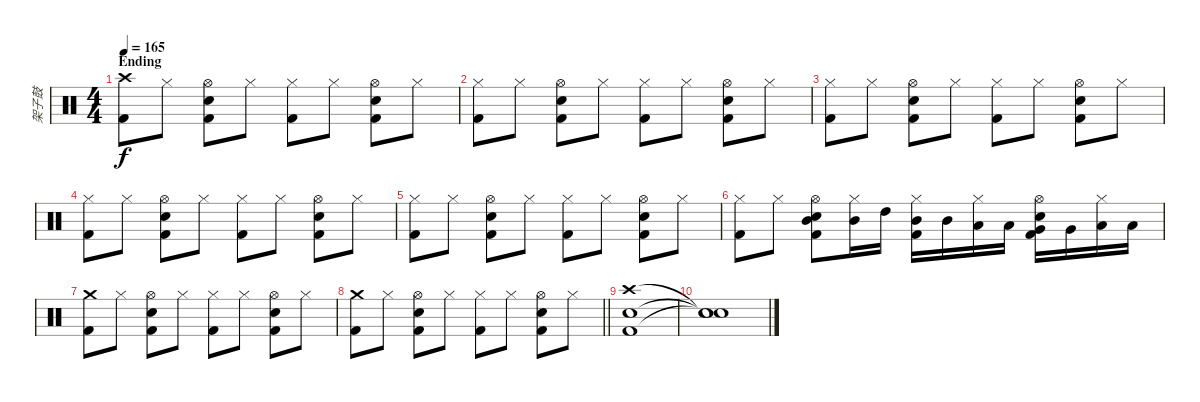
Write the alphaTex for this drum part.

\track ("架子鼓" "架子鼓") {instrument percussion}
\staff {score}
\articulation defaults
\ts (4 4)
\section ("" "Ending")
\tempo 165
\clef neutral
\ks c
("Crash high (hit)" "Kick (hit) 2").8{dy f} "Hi-Hat (closed)".8 ("Hi-Hat (open)" "Electric Snare (hit)" "Kick (hit) 2").8 "Hi-Hat (closed)".8 ("Hi-Hat (closed)" "Kick (hit) 2").8 "Hi-Hat (closed)".8 ("Hi-Hat (open)" "Electric Snare (hit)" "Kick (hit) 2").8 "Hi-Hat (closed)".8 |
("Hi-Hat (closed)" "Kick (hit) 2").8 "Hi-Hat (closed)".8 ("Hi-Hat (open)" "Electric Snare (hit)" "Kick (hit) 2").8 "Hi-Hat (closed)".8 ("Hi-Hat (closed)" "Kick (hit) 2").8 "Hi-Hat (closed)".8 ("Hi-Hat (open)" "Electric Snare (hit)" "Kick (hit) 2").8 "Hi-Hat (closed)".8 |
("Hi-Hat (closed)" "Kick (hit) 2").8 "Hi-Hat (closed)".8 ("Hi-Hat (open)" "Electric Snare (hit)" "Kick (hit) 2").8 "Hi-Hat (closed)".8 ("Hi-Hat (closed)" "Kick (hit) 2").8 "Hi-Hat (closed)".8 ("Hi-Hat (open)" "Electric Snare (hit)" "Kick (hit) 2").8 "Hi-Hat (closed)".8 |
("Hi-Hat (closed)" "Kick (hit) 2").8 "Hi-Hat (closed)".8 ("Hi-Hat (open)" "Electric Snare (hit)" "Kick (hit) 2").8 "Hi-Hat (closed)".8 ("Hi-Hat (closed)" "Kick (hit) 2").8 "Hi-Hat (closed)".8 ("Hi-Hat (open)" "Electric Snare (hit)" "Kick (hit) 2").8 "Hi-Hat (closed)".8 |
("Hi-Hat (closed)" "Kick (hit) 2").8 "Hi-Hat (closed)".8 ("Hi-Hat (open)" "Electric Snare (hit)" "Kick (hit) 2").8 "Hi-Hat (closed)".8 ("Hi-Hat (closed)" "Kick (hit) 2").8 "Hi-Hat (closed)".8 ("Hi-Hat (open)" "Electric Snare (hit)" "Kick (hit) 2").8 "Hi-Hat (closed)".8 |
("Hi-Hat (closed)" "Kick (hit) 2").8 "Hi-Hat (closed)".8 ("Hi-Hat (open)" "Electric Snare (hit)" "Mid Tom (hit)" "Kick (hit) 2").8 ("Hi-Hat (closed)" "Mid Tom (hit)").16 "High Tom (hit)".16 ("Hi-Hat (closed)" "Mid Tom (hit)" "Kick (hit) 2").16 "Mid Tom (hit)".16 ("Hi-Hat (closed)" "Low Tom (hit)").16 "Low Tom (hit)".16 ("Hi-Hat (open)" "Electric Snare (hit)" "Very Low Tom (hit)" "Kick (hit) 2").16 "Very Low Tom (hit)".16 ("Hi-Hat (closed)" "Low Floor Tom (hit)").16 "Low Floor Tom (hit)".16 |
("Crash medium (hit)" "Kick (hit) 2").8 "Hi-Hat (closed)".8 ("Hi-Hat (open)" "Electric Snare (hit)" "Kick (hit) 2").8 "Hi-Hat (closed)".8 ("Hi-Hat (closed)" "Kick (hit) 2").8 "Hi-Hat (closed)".8 ("Hi-Hat (open)" "Electric Snare (hit)" "Kick (hit) 2").8 "Hi-Hat (closed)".8 |
\barLineRight lightlight
("Crash medium (hit)" "Kick (hit) 2").8 "Hi-Hat (closed)".8 ("Hi-Hat (open)" "Electric Snare (hit)" "Kick (hit) 2").8 "Hi-Hat (closed)".8 ("Hi-Hat (closed)" "Kick (hit) 2").8 "Hi-Hat (closed)".8 ("Hi-Hat (open)" "Electric Snare (hit)" "Kick (hit) 2").8 "Hi-Hat (closed)".8 |
("Crash high (hit)" "Electric Snare (hit)" "Kick (hit) 2").1 |
("Snare (hit)"{t} "Snare (hit)"{t} "Snare (hit)"{t}).1
